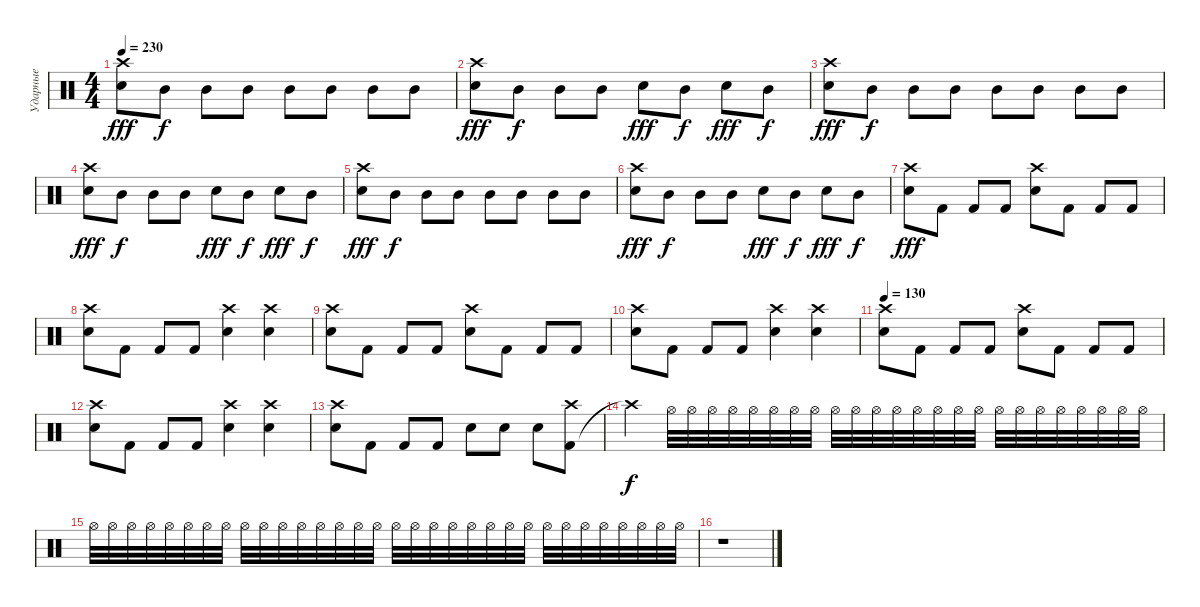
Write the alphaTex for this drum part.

\track ("Ударные" "Ударные") {instrument percussion}
\staff {score}
\articulation defaults
\ts (4 4)
\tempo 230
\clef neutral
\ks c
("Snare (hit) 2" "Crash high (hit)").8{dy fff} "Mid Tom (hit)".8{dy f} "Mid Tom (hit)".8 "Mid Tom (hit)".8 "Mid Tom (hit)".8 "Mid Tom (hit)".8 "Mid Tom (hit)".8 "Mid Tom (hit)".8 |
("Snare (hit) 2" "Crash high (hit)").8{dy fff} "Mid Tom (hit)".8{dy f} "Mid Tom (hit)".8 "Mid Tom (hit)".8 "Snare (hit) 2".8{dy fff} "Mid Tom (hit)".8{dy f} "Snare (hit) 2".8{dy fff} "Mid Tom (hit)".8{dy f} |
("Snare (hit) 2" "Crash high (hit)").8{dy fff} "Mid Tom (hit)".8{dy f} "Mid Tom (hit)".8 "Mid Tom (hit)".8 "Mid Tom (hit)".8 "Mid Tom (hit)".8 "Mid Tom (hit)".8 "Mid Tom (hit)".8 |
("Snare (hit) 2" "Crash high (hit)").8{dy fff} "Mid Tom (hit)".8{dy f} "Mid Tom (hit)".8 "Mid Tom (hit)".8 "Snare (hit) 2".8{dy fff} "Mid Tom (hit)".8{dy f} "Snare (hit) 2".8{dy fff} "Mid Tom (hit)".8{dy f} |
("Snare (hit) 2" "Crash high (hit)").8{dy fff} "Mid Tom (hit)".8{dy f} "Mid Tom (hit)".8 "Mid Tom (hit)".8 "Mid Tom (hit)".8 "Mid Tom (hit)".8 "Mid Tom (hit)".8 "Mid Tom (hit)".8 |
("Snare (hit) 2" "Crash high (hit)").8{dy fff} "Mid Tom (hit)".8{dy f} "Mid Tom (hit)".8 "Mid Tom (hit)".8 "Snare (hit) 2".8{dy fff} "Mid Tom (hit)".8{dy f} "Snare (hit) 2".8{dy fff} "Mid Tom (hit)".8{dy f} |
("Snare (hit) 2" "Crash high (hit)").8{dy fff} "Kick (hit) 2".8 "Kick (hit) 2".8 "Kick (hit) 2".8 ("Snare (hit) 2" "Crash high (hit)").8 "Kick (hit) 2".8 "Kick (hit) 2".8 "Kick (hit) 2".8 |
("Snare (hit) 2" "Crash high (hit)").8 "Kick (hit) 2".8 "Kick (hit) 2".8 "Kick (hit) 2".8 ("Snare (hit) 2" "Crash high (hit)").4 ("Snare (hit) 2" "Crash high (hit)").4 |
("Snare (hit) 2" "Crash high (hit)").8 "Kick (hit) 2".8 "Kick (hit) 2".8 "Kick (hit) 2".8 ("Snare (hit) 2" "Crash high (hit)").8 "Kick (hit) 2".8 "Kick (hit) 2".8 "Kick (hit) 2".8 |
("Snare (hit) 2" "Crash high (hit)").8 "Kick (hit) 2".8 "Kick (hit) 2".8 "Kick (hit) 2".8 ("Snare (hit) 2" "Crash high (hit)").4 ("Snare (hit) 2" "Crash high (hit)").4 |
\tempo 130
("Snare (hit) 2" "Crash high (hit)").8 "Kick (hit) 2".8 "Kick (hit) 2".8 "Kick (hit) 2".8 ("Snare (hit) 2" "Crash high (hit)").8 "Kick (hit) 2".8 "Kick (hit) 2".8 "Kick (hit) 2".8 |
("Snare (hit) 2" "Crash high (hit)").8 "Kick (hit) 2".8 "Kick (hit) 2".8 "Kick (hit) 2".8 ("Snare (hit) 2" "Crash high (hit)").4 ("Snare (hit) 2" "Crash high (hit)").4 |
("Snare (hit) 2" "Crash high (hit)").8 "Kick (hit) 2".8 "Kick (hit) 2".8 "Kick (hit) 2".8 "Snare (hit) 2".8 "Snare (hit) 2".8 "Snare (hit) 2".8 ("Kick (hit) 2" "Crash high (hit)").8 |
"Crash high (hit)"{t}.4{dy f} "Hi-Hat (open)".32 "Hi-Hat (open)".32 "Hi-Hat (open)".32 "Hi-Hat (open)".32 "Hi-Hat (open)".32 "Hi-Hat (open)".32 "Hi-Hat (open)".32 "Hi-Hat (open)".32 "Hi-Hat (open)".32 "Hi-Hat (open)".32 "Hi-Hat (open)".32 "Hi-Hat (open)".32 "Hi-Hat (open)".32 "Hi-Hat (open)".32 "Hi-Hat (open)".32 "Hi-Hat (open)".32 "Hi-Hat (open)".32 "Hi-Hat (open)".32 "Hi-Hat (open)".32 "Hi-Hat (open)".32 "Hi-Hat (open)".32 "Hi-Hat (open)".32 "Hi-Hat (open)".32 "Hi-Hat (open)".32 |
"Hi-Hat (open)".32 "Hi-Hat (open)".32 "Hi-Hat (open)".32 "Hi-Hat (open)".32 "Hi-Hat (open)".32 "Hi-Hat (open)".32 "Hi-Hat (open)".32 "Hi-Hat (open)".32 "Hi-Hat (open)".32 "Hi-Hat (open)".32 "Hi-Hat (open)".32 "Hi-Hat (open)".32 "Hi-Hat (open)".32 "Hi-Hat (open)".32 "Hi-Hat (open)".32 "Hi-Hat (open)".32 "Hi-Hat (open)".32 "Hi-Hat (open)".32 "Hi-Hat (open)".32 "Hi-Hat (open)".32 "Hi-Hat (open)".32 "Hi-Hat (open)".32 "Hi-Hat (open)".32 "Hi-Hat (open)".32 "Hi-Hat (open)".32 "Hi-Hat (open)".32 "Hi-Hat (open)".32 "Hi-Hat (open)".32 "Hi-Hat (open)".32 "Hi-Hat (open)".32 "Hi-Hat (open)".32 "Hi-Hat (open)".32 |
r.1
